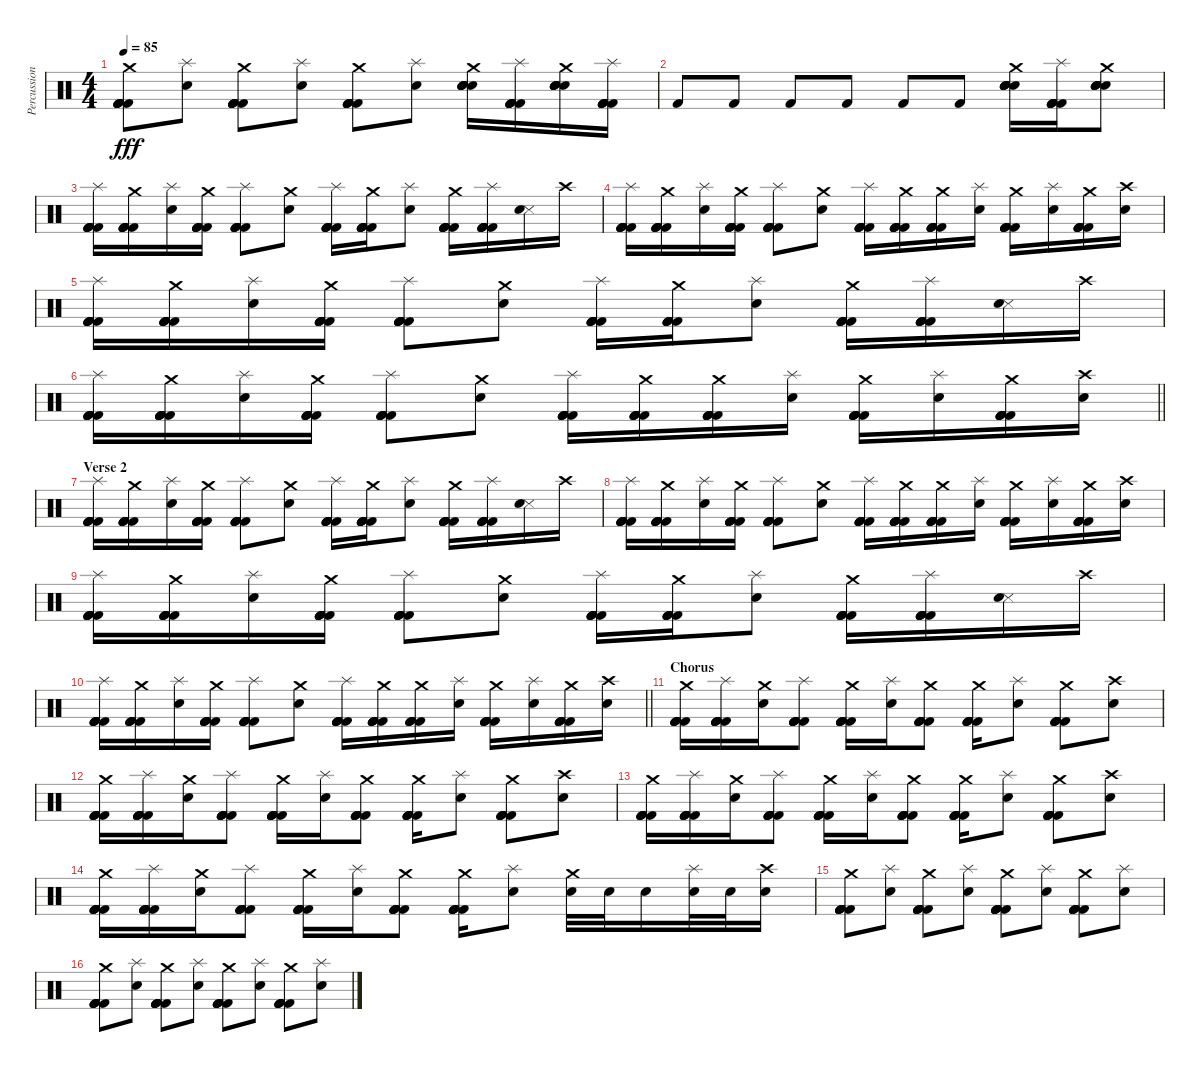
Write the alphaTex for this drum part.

\track ("Percussion" "Percussion") {instrument percussion}
\staff {score}
\articulation defaults
\ts (4 4)
\tempo 85
\clef neutral
\ks c
("Crash medium (hit)" "Kick (hit) 2" "Kick (hit) 2" "Kick (hit) 2" "Kick (hit) 2" "Kick (hit) 2").8{dy fff} ("Splash (hit)" "Snare (hit) 2").8 ("Crash medium (hit)" "Kick (hit) 2" "Kick (hit) 2" "Kick (hit) 2" "Kick (hit) 2" "Kick (hit) 2").8 ("Splash (hit)" "Snare (hit) 2").8 ("Crash medium (hit)" "Kick (hit) 2" "Kick (hit) 2" "Kick (hit) 2" "Kick (hit) 2" "Kick (hit) 2").8 ("Splash (hit)" "Snare (hit) 2").8 ("Crash medium (hit)" "Snare (hit) 2" "Snare (hit) 2" "Snare (hit) 2" "Snare (hit) 2" "Snare (hit) 2").16 ("Splash (hit)" "Kick (hit) 2" "Kick (hit) 2" "Kick (hit) 2" "Kick (hit) 2" "Kick (hit) 2").16 ("Crash medium (hit)" "Snare (hit) 2" "Snare (hit) 2" "Snare (hit) 2" "Snare (hit) 2" "Snare (hit) 2").16 ("Splash (hit)" "Kick (hit) 2" "Kick (hit) 2" "Kick (hit) 2" "Kick (hit) 2" "Kick (hit) 2").16 |
"Kick (hit) 2".8 "Kick (hit) 2".8 "Kick (hit) 2".8 "Kick (hit) 2".8 "Kick (hit) 2".8 "Kick (hit) 2".8 ("Crash medium (hit)" "Snare (hit) 2" "Snare (hit) 2" "Snare (hit) 2" "Snare (hit) 2" "Snare (hit) 2").16 ("Splash (hit)" "Kick (hit) 2" "Kick (hit) 2" "Kick (hit) 2" "Kick (hit) 2" "Kick (hit) 2").16 ("Crash medium (hit)" "Snare (hit) 2" "Snare (hit) 2" "Snare (hit) 2" "Snare (hit) 2" "Snare (hit) 2").8 |
("Splash (hit)" "Kick (hit) 2" "Kick (hit) 2" "Kick (hit) 2" "Kick (hit) 2" "Kick (hit) 2").16 ("Crash medium (hit)" "Kick (hit) 2" "Kick (hit) 2" "Kick (hit) 2" "Kick (hit) 2" "Kick (hit) 2").16 ("Splash (hit)" "Snare (hit) 2").16 ("Crash medium (hit)" "Kick (hit) 2" "Kick (hit) 2" "Kick (hit) 2" "Kick (hit) 2" "Kick (hit) 2").16 ("Splash (hit)" "Kick (hit) 2" "Kick (hit) 2" "Kick (hit) 2" "Kick (hit) 2" "Kick (hit) 2").8 ("Crash medium (hit)" "Snare (hit) 2").8 ("Splash (hit)" "Kick (hit) 2" "Kick (hit) 2" "Kick (hit) 2" "Kick (hit) 2" "Kick (hit) 2").16 ("Crash medium (hit)" "Kick (hit) 2" "Kick (hit) 2" "Kick (hit) 2" "Kick (hit) 2" "Kick (hit) 2").16 ("Splash (hit)" "Snare (hit) 2").8 ("Crash medium (hit)" "Kick (hit) 2" "Kick (hit) 2" "Kick (hit) 2" "Kick (hit) 2" "Kick (hit) 2").16 ("Splash (hit)" "Kick (hit) 2" "Kick (hit) 2" "Kick (hit) 2" "Kick (hit) 2" "Kick (hit) 2").16 ("Snare (side stick) 3" "Snare (hit) 2").16 "Crash high (hit)".16 |
("Splash (hit)" "Kick (hit) 2" "Kick (hit) 2" "Kick (hit) 2" "Kick (hit) 2" "Kick (hit) 2").16 ("Crash medium (hit)" "Kick (hit) 2" "Kick (hit) 2" "Kick (hit) 2" "Kick (hit) 2" "Kick (hit) 2").16 ("Splash (hit)" "Snare (hit) 2").16 ("Crash medium (hit)" "Kick (hit) 2" "Kick (hit) 2" "Kick (hit) 2" "Kick (hit) 2" "Kick (hit) 2").16 ("Splash (hit)" "Kick (hit) 2" "Kick (hit) 2" "Kick (hit) 2" "Kick (hit) 2" "Kick (hit) 2").8 ("Crash medium (hit)" "Snare (hit) 2").8 ("Splash (hit)" "Kick (hit) 2" "Kick (hit) 2" "Kick (hit) 2" "Kick (hit) 2" "Kick (hit) 2").16 ("Crash medium (hit)" "Kick (hit) 2" "Kick (hit) 2" "Kick (hit) 2" "Kick (hit) 2" "Kick (hit) 2").16 ("Crash medium (hit)" "Kick (hit) 2" "Kick (hit) 2" "Kick (hit) 2" "Kick (hit) 2" "Kick (hit) 2").16 ("Splash (hit)" "Snare (hit) 2").16 ("Crash medium (hit)" "Kick (hit) 2" "Kick (hit) 2" "Kick (hit) 2" "Kick (hit) 2" "Kick (hit) 2").16 ("Splash (hit)" "Snare (hit) 2").16 ("Crash medium (hit)" "Kick (hit) 2" "Kick (hit) 2" "Kick (hit) 2" "Kick (hit) 2" "Kick (hit) 2").16 ("Crash high (hit)" "Snare (hit) 2").16 |
("Splash (hit)" "Kick (hit) 2" "Kick (hit) 2" "Kick (hit) 2" "Kick (hit) 2" "Kick (hit) 2").16 ("Crash medium (hit)" "Kick (hit) 2" "Kick (hit) 2" "Kick (hit) 2" "Kick (hit) 2" "Kick (hit) 2").16 ("Splash (hit)" "Snare (hit) 2").16 ("Crash medium (hit)" "Kick (hit) 2" "Kick (hit) 2" "Kick (hit) 2" "Kick (hit) 2" "Kick (hit) 2").16 ("Splash (hit)" "Kick (hit) 2" "Kick (hit) 2" "Kick (hit) 2" "Kick (hit) 2" "Kick (hit) 2").8 ("Crash medium (hit)" "Snare (hit) 2").8 ("Splash (hit)" "Kick (hit) 2" "Kick (hit) 2" "Kick (hit) 2" "Kick (hit) 2" "Kick (hit) 2").16 ("Crash medium (hit)" "Kick (hit) 2" "Kick (hit) 2" "Kick (hit) 2" "Kick (hit) 2" "Kick (hit) 2").16 ("Splash (hit)" "Snare (hit) 2").8 ("Crash medium (hit)" "Kick (hit) 2" "Kick (hit) 2" "Kick (hit) 2" "Kick (hit) 2" "Kick (hit) 2").16 ("Splash (hit)" "Kick (hit) 2" "Kick (hit) 2" "Kick (hit) 2" "Kick (hit) 2" "Kick (hit) 2").16 ("Snare (side stick) 3" "Snare (hit) 2").16 "Crash high (hit)".16 |
\barLineRight lightlight
("Splash (hit)" "Kick (hit) 2" "Kick (hit) 2" "Kick (hit) 2" "Kick (hit) 2" "Kick (hit) 2").16 ("Crash medium (hit)" "Kick (hit) 2" "Kick (hit) 2" "Kick (hit) 2" "Kick (hit) 2" "Kick (hit) 2").16 ("Splash (hit)" "Snare (hit) 2").16 ("Crash medium (hit)" "Kick (hit) 2" "Kick (hit) 2" "Kick (hit) 2" "Kick (hit) 2" "Kick (hit) 2").16 ("Splash (hit)" "Kick (hit) 2" "Kick (hit) 2" "Kick (hit) 2" "Kick (hit) 2" "Kick (hit) 2").8 ("Crash medium (hit)" "Snare (hit) 2").8 ("Splash (hit)" "Kick (hit) 2" "Kick (hit) 2" "Kick (hit) 2" "Kick (hit) 2" "Kick (hit) 2").16 ("Crash medium (hit)" "Kick (hit) 2" "Kick (hit) 2" "Kick (hit) 2" "Kick (hit) 2" "Kick (hit) 2").16 ("Crash medium (hit)" "Kick (hit) 2" "Kick (hit) 2" "Kick (hit) 2" "Kick (hit) 2" "Kick (hit) 2").16 ("Splash (hit)" "Snare (hit) 2").16 ("Crash medium (hit)" "Kick (hit) 2" "Kick (hit) 2" "Kick (hit) 2" "Kick (hit) 2" "Kick (hit) 2").16 ("Splash (hit)" "Snare (hit) 2").16 ("Crash medium (hit)" "Kick (hit) 2" "Kick (hit) 2" "Kick (hit) 2" "Kick (hit) 2" "Kick (hit) 2").16 ("Crash high (hit)" "Snare (hit) 2").16 |
\section ("" "Verse 2")
("Splash (hit)" "Kick (hit) 2" "Kick (hit) 2" "Kick (hit) 2" "Kick (hit) 2" "Kick (hit) 2").16 ("Crash medium (hit)" "Kick (hit) 2" "Kick (hit) 2" "Kick (hit) 2" "Kick (hit) 2" "Kick (hit) 2").16 ("Splash (hit)" "Snare (hit) 2").16 ("Crash medium (hit)" "Kick (hit) 2" "Kick (hit) 2" "Kick (hit) 2" "Kick (hit) 2" "Kick (hit) 2").16 ("Splash (hit)" "Kick (hit) 2" "Kick (hit) 2" "Kick (hit) 2" "Kick (hit) 2" "Kick (hit) 2").8 ("Crash medium (hit)" "Snare (hit) 2").8 ("Splash (hit)" "Kick (hit) 2" "Kick (hit) 2" "Kick (hit) 2" "Kick (hit) 2" "Kick (hit) 2").16 ("Crash medium (hit)" "Kick (hit) 2" "Kick (hit) 2" "Kick (hit) 2" "Kick (hit) 2" "Kick (hit) 2").16 ("Splash (hit)" "Snare (hit) 2").8 ("Crash medium (hit)" "Kick (hit) 2" "Kick (hit) 2" "Kick (hit) 2" "Kick (hit) 2" "Kick (hit) 2").16 ("Splash (hit)" "Kick (hit) 2" "Kick (hit) 2" "Kick (hit) 2" "Kick (hit) 2" "Kick (hit) 2").16 ("Snare (side stick) 3" "Snare (hit) 2").16 "Crash high (hit)".16 |
("Splash (hit)" "Kick (hit) 2" "Kick (hit) 2" "Kick (hit) 2" "Kick (hit) 2" "Kick (hit) 2").16 ("Crash medium (hit)" "Kick (hit) 2" "Kick (hit) 2" "Kick (hit) 2" "Kick (hit) 2" "Kick (hit) 2").16 ("Splash (hit)" "Snare (hit) 2").16 ("Crash medium (hit)" "Kick (hit) 2" "Kick (hit) 2" "Kick (hit) 2" "Kick (hit) 2" "Kick (hit) 2").16 ("Splash (hit)" "Kick (hit) 2" "Kick (hit) 2" "Kick (hit) 2" "Kick (hit) 2" "Kick (hit) 2").8 ("Crash medium (hit)" "Snare (hit) 2").8 ("Splash (hit)" "Kick (hit) 2" "Kick (hit) 2" "Kick (hit) 2" "Kick (hit) 2" "Kick (hit) 2").16 ("Crash medium (hit)" "Kick (hit) 2" "Kick (hit) 2" "Kick (hit) 2" "Kick (hit) 2" "Kick (hit) 2").16 ("Crash medium (hit)" "Kick (hit) 2" "Kick (hit) 2" "Kick (hit) 2" "Kick (hit) 2" "Kick (hit) 2").16 ("Splash (hit)" "Snare (hit) 2").16 ("Crash medium (hit)" "Kick (hit) 2" "Kick (hit) 2" "Kick (hit) 2" "Kick (hit) 2" "Kick (hit) 2").16 ("Splash (hit)" "Snare (hit) 2").16 ("Crash medium (hit)" "Kick (hit) 2" "Kick (hit) 2" "Kick (hit) 2" "Kick (hit) 2" "Kick (hit) 2").16 ("Crash high (hit)" "Snare (hit) 2").16 |
("Splash (hit)" "Kick (hit) 2" "Kick (hit) 2" "Kick (hit) 2" "Kick (hit) 2" "Kick (hit) 2").16 ("Crash medium (hit)" "Kick (hit) 2" "Kick (hit) 2" "Kick (hit) 2" "Kick (hit) 2" "Kick (hit) 2").16 ("Splash (hit)" "Snare (hit) 2").16 ("Crash medium (hit)" "Kick (hit) 2" "Kick (hit) 2" "Kick (hit) 2" "Kick (hit) 2" "Kick (hit) 2").16 ("Splash (hit)" "Kick (hit) 2" "Kick (hit) 2" "Kick (hit) 2" "Kick (hit) 2" "Kick (hit) 2").8 ("Crash medium (hit)" "Snare (hit) 2").8 ("Splash (hit)" "Kick (hit) 2" "Kick (hit) 2" "Kick (hit) 2" "Kick (hit) 2" "Kick (hit) 2").16 ("Crash medium (hit)" "Kick (hit) 2" "Kick (hit) 2" "Kick (hit) 2" "Kick (hit) 2" "Kick (hit) 2").16 ("Splash (hit)" "Snare (hit) 2").8 ("Crash medium (hit)" "Kick (hit) 2" "Kick (hit) 2" "Kick (hit) 2" "Kick (hit) 2" "Kick (hit) 2").16 ("Splash (hit)" "Kick (hit) 2" "Kick (hit) 2" "Kick (hit) 2" "Kick (hit) 2" "Kick (hit) 2").16 ("Snare (side stick) 3" "Snare (hit) 2").16 "Crash high (hit)".16 |
\barLineRight lightlight
("Splash (hit)" "Kick (hit) 2" "Kick (hit) 2" "Kick (hit) 2" "Kick (hit) 2" "Kick (hit) 2").16 ("Crash medium (hit)" "Kick (hit) 2" "Kick (hit) 2" "Kick (hit) 2" "Kick (hit) 2" "Kick (hit) 2").16 ("Splash (hit)" "Snare (hit) 2").16 ("Crash medium (hit)" "Kick (hit) 2" "Kick (hit) 2" "Kick (hit) 2" "Kick (hit) 2" "Kick (hit) 2").16 ("Splash (hit)" "Kick (hit) 2" "Kick (hit) 2" "Kick (hit) 2" "Kick (hit) 2" "Kick (hit) 2").8 ("Crash medium (hit)" "Snare (hit) 2").8 ("Splash (hit)" "Kick (hit) 2" "Kick (hit) 2" "Kick (hit) 2" "Kick (hit) 2" "Kick (hit) 2").16 ("Crash medium (hit)" "Kick (hit) 2" "Kick (hit) 2" "Kick (hit) 2" "Kick (hit) 2" "Kick (hit) 2").16 ("Crash medium (hit)" "Kick (hit) 2" "Kick (hit) 2" "Kick (hit) 2" "Kick (hit) 2" "Kick (hit) 2").16 ("Splash (hit)" "Snare (hit) 2").16 ("Crash medium (hit)" "Kick (hit) 2" "Kick (hit) 2" "Kick (hit) 2" "Kick (hit) 2" "Kick (hit) 2").16 ("Splash (hit)" "Snare (hit) 2").16 ("Crash medium (hit)" "Kick (hit) 2" "Kick (hit) 2" "Kick (hit) 2" "Kick (hit) 2" "Kick (hit) 2").16 ("Crash high (hit)" "Snare (hit) 2").16 |
\section ("" "Chorus")
("Crash medium (hit)" "Kick (hit) 2" "Kick (hit) 2" "Kick (hit) 2" "Kick (hit) 2" "Kick (hit) 2").16 ("Splash (hit)" "Kick (hit) 2" "Kick (hit) 2" "Kick (hit) 2" "Kick (hit) 2" "Kick (hit) 2").16 ("Crash medium (hit)" "Snare (hit) 2").16 ("Splash (hit)" "Kick (hit) 2" "Kick (hit) 2" "Kick (hit) 2" "Kick (hit) 2" "Kick (hit) 2").8 ("Crash medium (hit)" "Kick (hit) 2" "Kick (hit) 2" "Kick (hit) 2" "Kick (hit) 2" "Kick (hit) 2").16 ("Splash (hit)" "Snare (hit) 2").16 ("Crash medium (hit)" "Kick (hit) 2" "Kick (hit) 2" "Kick (hit) 2" "Kick (hit) 2" "Kick (hit) 2").8 ("Crash medium (hit)" "Kick (hit) 2" "Kick (hit) 2" "Kick (hit) 2" "Kick (hit) 2" "Kick (hit) 2").16 ("Splash (hit)" "Snare (hit) 2").8 ("Crash medium (hit)" "Kick (hit) 2" "Kick (hit) 2" "Kick (hit) 2" "Kick (hit) 2" "Kick (hit) 2").8 ("Crash high (hit)" "Snare (hit) 2").8 |
("Crash medium (hit)" "Kick (hit) 2" "Kick (hit) 2" "Kick (hit) 2" "Kick (hit) 2" "Kick (hit) 2").16 ("Splash (hit)" "Kick (hit) 2" "Kick (hit) 2" "Kick (hit) 2" "Kick (hit) 2" "Kick (hit) 2").16 ("Crash medium (hit)" "Snare (hit) 2").16 ("Splash (hit)" "Kick (hit) 2" "Kick (hit) 2" "Kick (hit) 2" "Kick (hit) 2" "Kick (hit) 2").8 ("Crash medium (hit)" "Kick (hit) 2" "Kick (hit) 2" "Kick (hit) 2" "Kick (hit) 2" "Kick (hit) 2").16 ("Splash (hit)" "Snare (hit) 2").16 ("Crash medium (hit)" "Kick (hit) 2" "Kick (hit) 2" "Kick (hit) 2" "Kick (hit) 2" "Kick (hit) 2").8 ("Crash medium (hit)" "Kick (hit) 2" "Kick (hit) 2" "Kick (hit) 2" "Kick (hit) 2" "Kick (hit) 2").16 ("Splash (hit)" "Snare (hit) 2").8 ("Crash medium (hit)" "Kick (hit) 2" "Kick (hit) 2" "Kick (hit) 2" "Kick (hit) 2" "Kick (hit) 2").8 ("Crash high (hit)" "Snare (hit) 2").8 |
("Crash medium (hit)" "Kick (hit) 2" "Kick (hit) 2" "Kick (hit) 2" "Kick (hit) 2" "Kick (hit) 2").16 ("Splash (hit)" "Kick (hit) 2" "Kick (hit) 2" "Kick (hit) 2" "Kick (hit) 2" "Kick (hit) 2").16 ("Crash medium (hit)" "Snare (hit) 2").16 ("Splash (hit)" "Kick (hit) 2" "Kick (hit) 2" "Kick (hit) 2" "Kick (hit) 2" "Kick (hit) 2").8 ("Crash medium (hit)" "Kick (hit) 2" "Kick (hit) 2" "Kick (hit) 2" "Kick (hit) 2" "Kick (hit) 2").16 ("Splash (hit)" "Snare (hit) 2").16 ("Crash medium (hit)" "Kick (hit) 2" "Kick (hit) 2" "Kick (hit) 2" "Kick (hit) 2" "Kick (hit) 2").8 ("Crash medium (hit)" "Kick (hit) 2" "Kick (hit) 2" "Kick (hit) 2" "Kick (hit) 2" "Kick (hit) 2").16 ("Splash (hit)" "Snare (hit) 2").8 ("Crash medium (hit)" "Kick (hit) 2" "Kick (hit) 2" "Kick (hit) 2" "Kick (hit) 2" "Kick (hit) 2").8 ("Crash high (hit)" "Snare (hit) 2").8 |
("Crash medium (hit)" "Kick (hit) 2" "Kick (hit) 2" "Kick (hit) 2" "Kick (hit) 2" "Kick (hit) 2").16 ("Splash (hit)" "Kick (hit) 2" "Kick (hit) 2" "Kick (hit) 2" "Kick (hit) 2" "Kick (hit) 2").16 ("Crash medium (hit)" "Snare (hit) 2").16 ("Splash (hit)" "Kick (hit) 2" "Kick (hit) 2" "Kick (hit) 2" "Kick (hit) 2" "Kick (hit) 2").8 ("Crash medium (hit)" "Kick (hit) 2" "Kick (hit) 2" "Kick (hit) 2" "Kick (hit) 2" "Kick (hit) 2").16 ("Splash (hit)" "Snare (hit) 2").16 ("Crash medium (hit)" "Kick (hit) 2" "Kick (hit) 2" "Kick (hit) 2" "Kick (hit) 2" "Kick (hit) 2").8 ("Crash medium (hit)" "Kick (hit) 2" "Kick (hit) 2" "Kick (hit) 2" "Kick (hit) 2" "Kick (hit) 2").16 ("Splash (hit)" "Snare (hit) 2").8 ("Crash medium (hit)" "Snare (hit) 2").32 "Snare (hit) 2".32 "Electric Snare (hit)".16 ("Splash (hit)" "Snare (hit) 2").32 "Snare (hit) 2".32 ("Crash high (hit)" "Electric Snare (hit)").16 |
("Crash medium (hit)" "Kick (hit) 2" "Kick (hit) 2" "Kick (hit) 2" "Kick (hit) 2" "Kick (hit) 2").8 ("Splash (hit)" "Snare (hit) 2").8 ("Crash medium (hit)" "Kick (hit) 2" "Kick (hit) 2" "Kick (hit) 2" "Kick (hit) 2" "Kick (hit) 2").8 ("Splash (hit)" "Snare (hit) 2").8 ("Crash medium (hit)" "Kick (hit) 2" "Kick (hit) 2" "Kick (hit) 2" "Kick (hit) 2" "Kick (hit) 2").8 ("Splash (hit)" "Snare (hit) 2").8 ("Crash medium (hit)" "Kick (hit) 2" "Kick (hit) 2" "Kick (hit) 2" "Kick (hit) 2" "Kick (hit) 2").8 ("Splash (hit)" "Snare (hit) 2").8 |
("Crash medium (hit)" "Kick (hit) 2" "Kick (hit) 2" "Kick (hit) 2" "Kick (hit) 2" "Kick (hit) 2").8 ("Splash (hit)" "Snare (hit) 2").8 ("Crash medium (hit)" "Kick (hit) 2" "Kick (hit) 2" "Kick (hit) 2" "Kick (hit) 2" "Kick (hit) 2").8 ("Splash (hit)" "Snare (hit) 2").8 ("Crash medium (hit)" "Kick (hit) 2" "Kick (hit) 2" "Kick (hit) 2" "Kick (hit) 2" "Kick (hit) 2").8 ("Splash (hit)" "Snare (hit) 2").8 ("Crash medium (hit)" "Kick (hit) 2" "Kick (hit) 2" "Kick (hit) 2" "Kick (hit) 2" "Kick (hit) 2").8 ("Splash (hit)" "Snare (hit) 2").8
